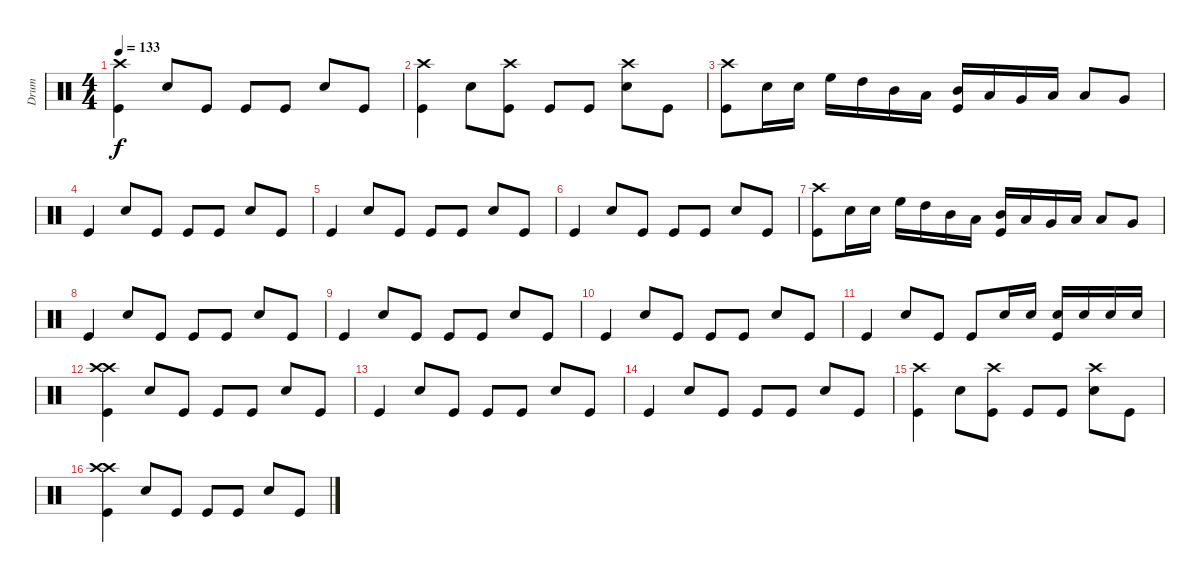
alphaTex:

\track ("Drum" "Drum") {instrument percussion}
\staff {score}
\articulation defaults
\ts (4 4)
\tempo 133
\clef neutral
\ks c
("Crash high (hit)" "Kick (hit)").4{dy f} "Snare (hit) 2".8 "Kick (hit)".8 "Kick (hit)".8 "Kick (hit)".8 "Snare (hit) 2".8 "Kick (hit)".8 |
("Crash high (hit)" "Kick (hit)").4 "Snare (hit) 2".8 ("Crash high (hit)" "Kick (hit)").8 "Kick (hit)".8 "Kick (hit)".8 ("Crash high (hit)" "Snare (hit) 2").8 "Kick (hit)".8 |
("Crash high (hit)" "Kick (hit)").8 "Snare (hit) 2".16 "Snare (hit) 2".16 "High Floor Tom (hit)".16 "High Tom (hit)".16 "Mid Tom (hit)".16 "Low Tom (hit)".16 ("Mid Tom (hit)" "Kick (hit)").16 "Low Tom (hit)".16 "Very Low Tom (hit)".16 "Low Floor Tom (hit)".16 "Low Tom (hit)".8 "Very Low Tom (hit)".8 |
"Kick (hit)".4 "Snare (hit) 2".8 "Kick (hit)".8 "Kick (hit)".8 "Kick (hit)".8 "Snare (hit) 2".8 "Kick (hit)".8 |
"Kick (hit)".4 "Snare (hit) 2".8 "Kick (hit)".8 "Kick (hit)".8 "Kick (hit)".8 "Snare (hit) 2".8 "Kick (hit)".8 |
"Kick (hit)".4 "Snare (hit) 2".8 "Kick (hit)".8 "Kick (hit)".8 "Kick (hit)".8 "Snare (hit) 2".8 "Kick (hit)".8 |
("Crash high (hit)" "Kick (hit)").8 "Snare (hit) 2".16 "Snare (hit) 2".16 "High Floor Tom (hit)".16 "High Tom (hit)".16 "Mid Tom (hit)".16 "Low Tom (hit)".16 ("Mid Tom (hit)" "Kick (hit)").16 "Low Tom (hit)".16 "Very Low Tom (hit)".16 "Low Floor Tom (hit)".16 "Low Tom (hit)".8 "Very Low Tom (hit)".8 |
"Kick (hit)".4 "Snare (hit) 2".8 "Kick (hit)".8 "Kick (hit)".8 "Kick (hit)".8 "Snare (hit) 2".8 "Kick (hit)".8 |
"Kick (hit)".4 "Snare (hit) 2".8 "Kick (hit)".8 "Kick (hit)".8 "Kick (hit)".8 "Snare (hit) 2".8 "Kick (hit)".8 |
"Kick (hit)".4 "Snare (hit) 2".8 "Kick (hit)".8 "Kick (hit)".8 "Kick (hit)".8 "Snare (hit) 2".8 "Kick (hit)".8 |
"Kick (hit)".4 "Snare (hit) 2".8 "Kick (hit)".8 "Kick (hit)".8 "Snare (hit) 2".16 "Snare (hit) 2".16 ("Snare (hit) 2" "Kick (hit)").16 "Snare (hit) 2".16 "Snare (hit) 2".16 "Snare (hit) 2".16 |
("Crash high (hit)" "Crash high (hit)" "Kick (hit)").4 "Snare (hit) 2".8 "Kick (hit)".8 "Kick (hit)".8 "Kick (hit)".8 "Snare (hit) 2".8 "Kick (hit)".8 |
"Kick (hit)".4 "Snare (hit) 2".8 "Kick (hit)".8 "Kick (hit)".8 "Kick (hit)".8 "Snare (hit) 2".8 "Kick (hit)".8 |
"Kick (hit)".4 "Snare (hit) 2".8 "Kick (hit)".8 "Kick (hit)".8 "Kick (hit)".8 "Snare (hit) 2".8 "Kick (hit)".8 |
("Crash high (hit)" "Kick (hit)").4 "Snare (hit) 2".8 ("Crash high (hit)" "Kick (hit)").8 "Kick (hit)".8 "Kick (hit)".8 ("Crash high (hit)" "Snare (hit) 2").8 "Kick (hit)".8 |
("Crash high (hit)" "Crash high (hit)" "Kick (hit)").4 "Snare (hit) 2".8 "Kick (hit)".8 "Kick (hit)".8 "Kick (hit)".8 "Snare (hit) 2".8 "Kick (hit)".8
